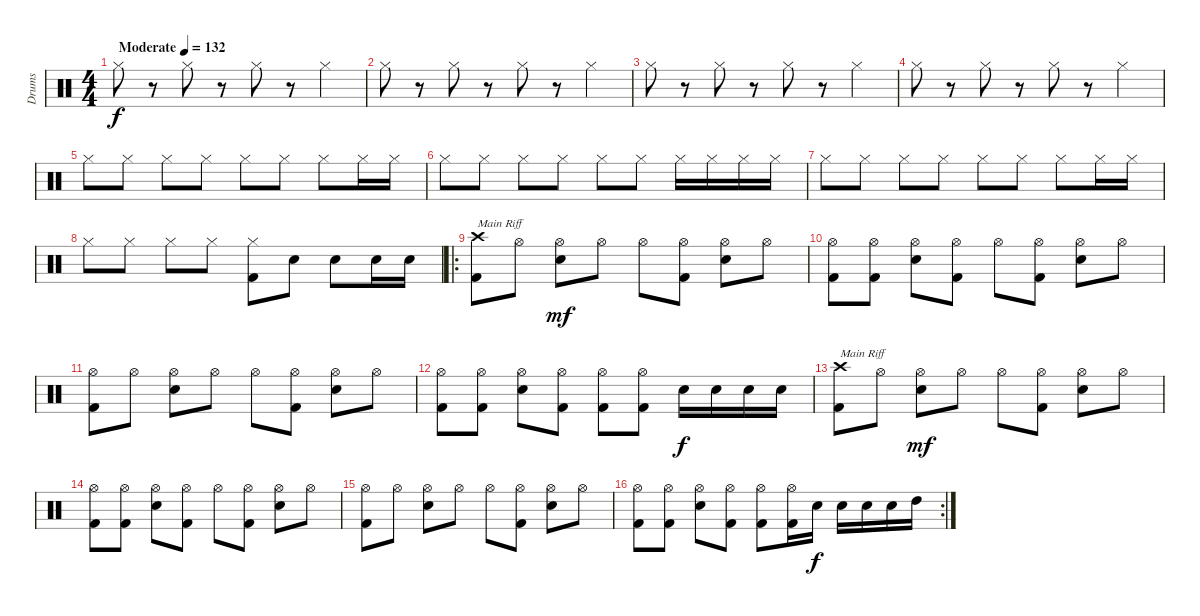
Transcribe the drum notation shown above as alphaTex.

\track ("Drums" "Drums") {instrument percussion}
\staff {score}
\articulation defaults
\ts (4 4)
\tempo (132 "Moderate")
\clef neutral
\ks c "Hi-Hat (closed)".8{dy f}
r.8 "Hi-Hat (closed)".8 r.8 "Hi-Hat (closed)".8 r.8 "Hi-Hat (closed)".4 |
"Hi-Hat (closed)".8 r.8 "Hi-Hat (closed)".8 r.8 "Hi-Hat (closed)".8 r.8 "Hi-Hat (closed)".4 |
"Hi-Hat (closed)".8 r.8 "Hi-Hat (closed)".8 r.8 "Hi-Hat (closed)".8 r.8 "Hi-Hat (closed)".4 |
"Hi-Hat (closed)".8 r.8 "Hi-Hat (closed)".8 r.8 "Hi-Hat (closed)".8 r.8 "Hi-Hat (closed)".4 |
"Hi-Hat (closed)".8 "Hi-Hat (closed)".8 "Hi-Hat (closed)".8 "Hi-Hat (closed)".8 "Hi-Hat (closed)".8 "Hi-Hat (closed)".8 "Hi-Hat (closed)".8 "Hi-Hat (closed)".16 "Hi-Hat (closed)".16 |
"Hi-Hat (closed)".8 "Hi-Hat (closed)".8 "Hi-Hat (closed)".8 "Hi-Hat (closed)".8 "Hi-Hat (closed)".8 "Hi-Hat (closed)".8 "Hi-Hat (closed)".16 "Hi-Hat (closed)".16 "Hi-Hat (closed)".16 "Hi-Hat (closed)".16 |
"Hi-Hat (closed)".8 "Hi-Hat (closed)".8 "Hi-Hat (closed)".8 "Hi-Hat (closed)".8 "Hi-Hat (closed)".8 "Hi-Hat (closed)".8 "Hi-Hat (closed)".8 "Hi-Hat (closed)".16 "Hi-Hat (closed)".16 |
"Hi-Hat (closed)".8 "Hi-Hat (closed)".8 "Hi-Hat (closed)".8 "Hi-Hat (closed)".8 ("Hi-Hat (closed)" "Kick (hit) 2").8 "Snare (hit) 2".8 "Snare (hit) 2".8 "Snare (hit) 2".16 "Snare (hit) 2".16 |
\ro
("Crash high (hit)" "Kick (hit) 2").8{txt "Main Riff"} "Hi-Hat (open)".8 ("Hi-Hat (open)" "Snare (hit) 2").8{dy mf} "Hi-Hat (open)".8 "Hi-Hat (open)".8 ("Hi-Hat (open)" "Kick (hit) 2").8 ("Hi-Hat (open)" "Snare (hit) 2").8 "Hi-Hat (open)".8 |
("Hi-Hat (open)" "Kick (hit) 2").8 ("Hi-Hat (open)" "Kick (hit) 2").8 ("Hi-Hat (open)" "Snare (hit) 2").8 ("Hi-Hat (open)" "Kick (hit) 2").8 "Hi-Hat (open)".8 ("Hi-Hat (open)" "Kick (hit) 2").8 ("Hi-Hat (open)" "Snare (hit) 2").8 "Hi-Hat (open)".8 |
("Hi-Hat (open)" "Kick (hit) 2").8 "Hi-Hat (open)".8 ("Hi-Hat (open)" "Snare (hit) 2").8 "Hi-Hat (open)".8 "Hi-Hat (open)".8 ("Hi-Hat (open)" "Kick (hit) 2").8 ("Hi-Hat (open)" "Snare (hit) 2").8 "Hi-Hat (open)".8 |
("Hi-Hat (open)" "Kick (hit) 2").8 ("Hi-Hat (open)" "Kick (hit) 2").8 ("Hi-Hat (open)" "Snare (hit) 2").8 ("Hi-Hat (open)" "Kick (hit) 2").8 ("Hi-Hat (open)" "Kick (hit) 2").8 ("Hi-Hat (open)" "Kick (hit) 2").8 "Snare (hit) 2".16{dy f} "Snare (hit) 2".16 "Snare (hit) 2".16 "Snare (hit) 2".16 |
("Crash high (hit)" "Kick (hit) 2").8{txt "Main Riff"} "Hi-Hat (open)".8 ("Hi-Hat (open)" "Snare (hit) 2").8{dy mf} "Hi-Hat (open)".8 "Hi-Hat (open)".8 ("Hi-Hat (open)" "Kick (hit) 2").8 ("Hi-Hat (open)" "Snare (hit) 2").8 "Hi-Hat (open)".8 |
("Hi-Hat (open)" "Kick (hit) 2").8 ("Hi-Hat (open)" "Kick (hit) 2").8 ("Hi-Hat (open)" "Snare (hit) 2").8 ("Hi-Hat (open)" "Kick (hit) 2").8 "Hi-Hat (open)".8 ("Hi-Hat (open)" "Kick (hit) 2").8 ("Hi-Hat (open)" "Snare (hit) 2").8 "Hi-Hat (open)".8 |
("Hi-Hat (open)" "Kick (hit) 2").8 "Hi-Hat (open)".8 ("Hi-Hat (open)" "Snare (hit) 2").8 "Hi-Hat (open)".8 "Hi-Hat (open)".8 ("Hi-Hat (open)" "Kick (hit) 2").8 ("Hi-Hat (open)" "Snare (hit) 2").8 "Hi-Hat (open)".8 |
\rc 2
("Hi-Hat (open)" "Kick (hit) 2").8 ("Hi-Hat (open)" "Kick (hit) 2").8 ("Hi-Hat (open)" "Snare (hit) 2").8 ("Hi-Hat (open)" "Kick (hit) 2").8 ("Hi-Hat (open)" "Kick (hit) 2").8 ("Hi-Hat (open)" "Kick (hit) 2").16 "Snare (hit) 2".16{dy f} "Snare (hit) 2".16 "Snare (hit) 2".16 "Snare (hit) 2".16 "High Tom (hit)".16
